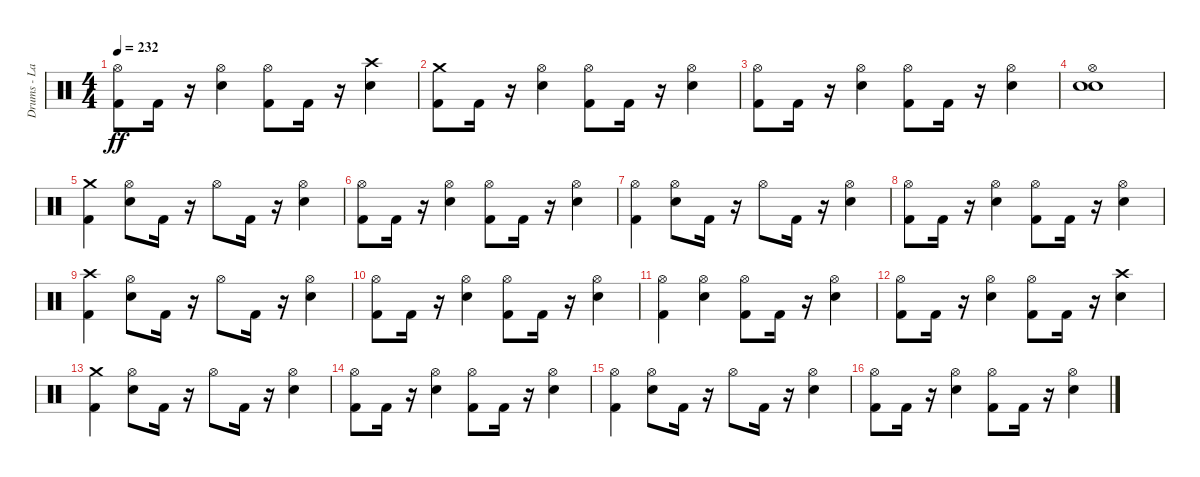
\track ("Drums - Larzon" "Drums - La") {instrument percussion}
\staff {score}
\articulation defaults
\ts (4 4)
\tempo 232
\clef neutral
\ks c
("Kick (hit) 2" "Hi-Hat (open)").8{dy ff} "Kick (hit) 2".16 r.16 ("Electric Snare (hit)" "Hi-Hat (open)").4 ("Kick (hit) 2" "Hi-Hat (open)").8 "Kick (hit) 2".16 r.16 ("Electric Snare (hit)" "Crash high (hit)").4 |
("Kick (hit) 2" "Crash medium (hit)").8 "Kick (hit) 2".16 r.16 ("Electric Snare (hit)" "Hi-Hat (open)").4 ("Kick (hit) 2" "Hi-Hat (open)").8 "Kick (hit) 2".16 r.16 ("Electric Snare (hit)" "Hi-Hat (open)").4 |
("Kick (hit) 2" "Hi-Hat (open)").8 "Kick (hit) 2".16 r.16 ("Electric Snare (hit)" "Hi-Hat (open)").4 ("Kick (hit) 2" "Hi-Hat (open)").8 "Kick (hit) 2".16 r.16 ("Electric Snare (hit)" "Hi-Hat (open)").4 |
("Electric Snare (hit)" "Hi-Hat (open)" "Electric Snare (hit)").1 |
("Crash medium (hit)" "Kick (hit) 2").4 ("Hi-Hat (open)" "Electric Snare (hit)").8 "Kick (hit) 2".16 r.16 "Hi-Hat (open)".8 "Kick (hit) 2".16 r.16 ("Electric Snare (hit)" "Hi-Hat (open)").4 |
("Kick (hit) 2" "Hi-Hat (open)").8 "Kick (hit) 2".16 r.16 ("Electric Snare (hit)" "Hi-Hat (open)").4 ("Kick (hit) 2" "Hi-Hat (open)").8 "Kick (hit) 2".16 r.16 ("Electric Snare (hit)" "Hi-Hat (open)").4 |
("Kick (hit) 2" "Hi-Hat (open)").4 ("Hi-Hat (open)" "Electric Snare (hit)").8 "Kick (hit) 2".16 r.16 "Hi-Hat (open)".8 "Kick (hit) 2".16 r.16 ("Electric Snare (hit)" "Hi-Hat (open)").4 |
("Kick (hit) 2" "Hi-Hat (open)").8 "Kick (hit) 2".16 r.16 ("Electric Snare (hit)" "Hi-Hat (open)").4 ("Kick (hit) 2" "Hi-Hat (open)").8 "Kick (hit) 2".16 r.16 ("Electric Snare (hit)" "Hi-Hat (open)").4 |
("Kick (hit) 2" "Crash high (hit)").4 ("Hi-Hat (open)" "Electric Snare (hit)").8 "Kick (hit) 2".16 r.16 "Hi-Hat (open)".8 "Kick (hit) 2".16 r.16 ("Electric Snare (hit)" "Hi-Hat (open)").4 |
("Kick (hit) 2" "Hi-Hat (open)").8 "Kick (hit) 2".16 r.16 ("Electric Snare (hit)" "Hi-Hat (open)").4 ("Kick (hit) 2" "Hi-Hat (open)").8 "Kick (hit) 2".16 r.16 ("Electric Snare (hit)" "Hi-Hat (open)").4 |
("Kick (hit) 2" "Hi-Hat (open)").4 ("Hi-Hat (open)" "Electric Snare (hit)").4 ("Hi-Hat (open)" "Kick (hit) 2").8 "Kick (hit) 2".16 r.16 ("Electric Snare (hit)" "Hi-Hat (open)").4 |
("Kick (hit) 2" "Hi-Hat (open)").8 "Kick (hit) 2".16 r.16 ("Electric Snare (hit)" "Hi-Hat (open)").4 ("Kick (hit) 2" "Hi-Hat (open)").8 "Kick (hit) 2".16 r.16 ("Crash high (hit)" "Electric Snare (hit)").4 |
("Crash medium (hit)" "Kick (hit) 2").4 ("Hi-Hat (open)" "Electric Snare (hit)").8 "Kick (hit) 2".16 r.16 "Hi-Hat (open)".8 "Kick (hit) 2".16 r.16 ("Electric Snare (hit)" "Hi-Hat (open)").4 |
("Kick (hit) 2" "Hi-Hat (open)").8 "Kick (hit) 2".16 r.16 ("Electric Snare (hit)" "Hi-Hat (open)").4 ("Kick (hit) 2" "Hi-Hat (open)").8 "Kick (hit) 2".16 r.16 ("Electric Snare (hit)" "Hi-Hat (open)").4 |
("Kick (hit) 2" "Hi-Hat (open)").4 ("Hi-Hat (open)" "Electric Snare (hit)").8 "Kick (hit) 2".16 r.16 "Hi-Hat (open)".8 "Kick (hit) 2".16 r.16 ("Electric Snare (hit)" "Hi-Hat (open)").4 |
("Kick (hit) 2" "Hi-Hat (open)").8 "Kick (hit) 2".16 r.16 ("Electric Snare (hit)" "Hi-Hat (open)").4 ("Kick (hit) 2" "Hi-Hat (open)").8 "Kick (hit) 2".16 r.16 ("Electric Snare (hit)" "Hi-Hat (open)").4
